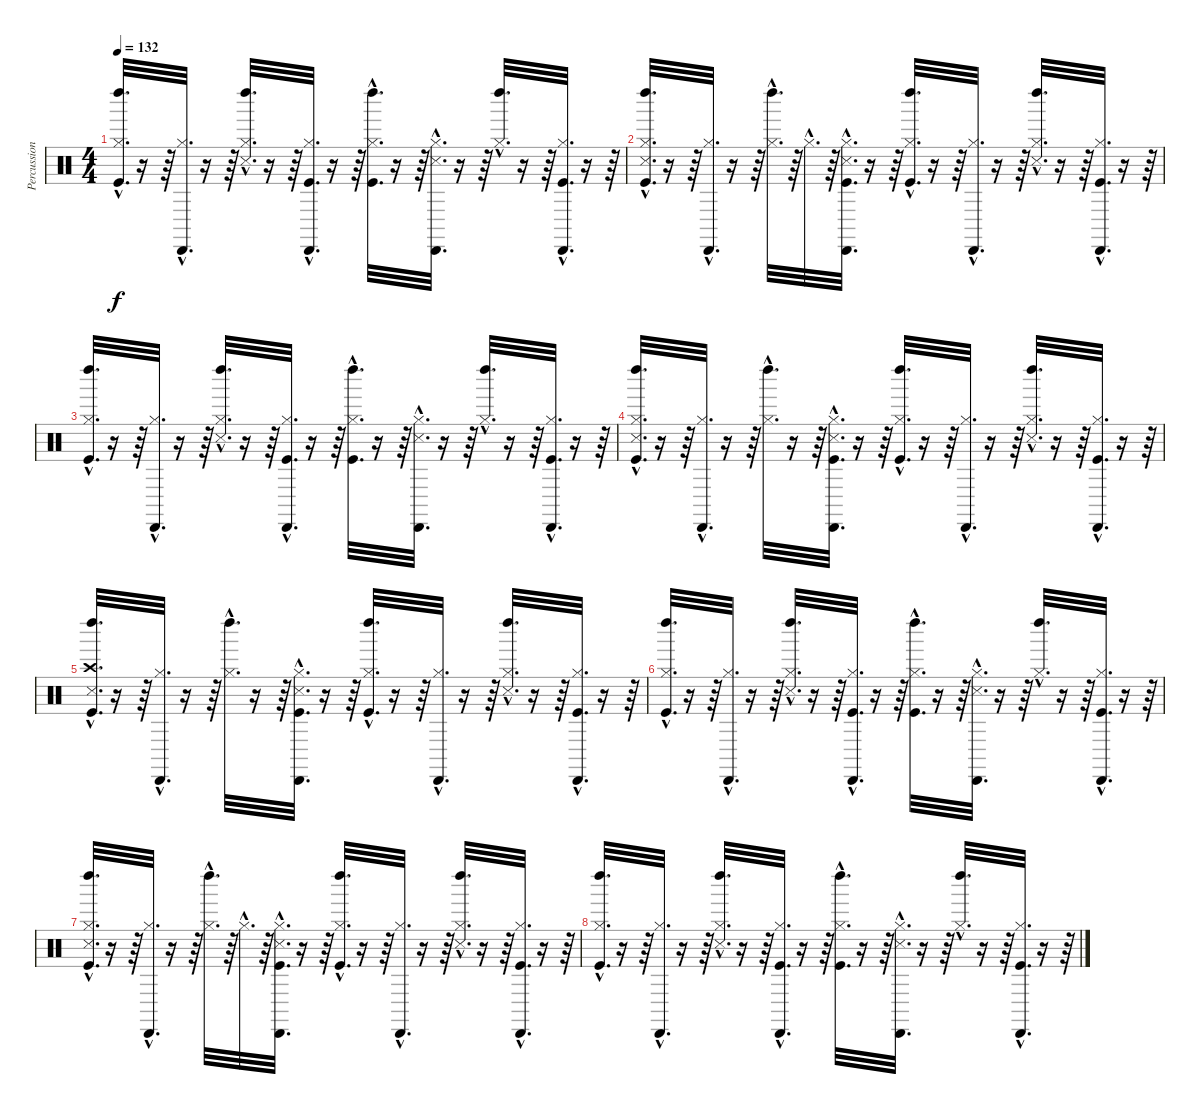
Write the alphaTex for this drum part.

\track ("Percussions" "Percussion") {instrument percussion}
\staff {score}
\articulation defaults
\ts (4 4)
\tempo 132
\clef neutral
\ks c
("Kick (hit)"{hac} "Hi-Hat (closed)"{hac} "Left Maraca (hit)"{hac}).32{d dy f} r.16 r.64 ("Hi-Hat (closed)"{hac} "Cabasa (hit)"{hac}).32{d} r.16 r.64 ("Hi-Hat (closed)"{hac} "Snare (side stick) 3"{hac} "Left Maraca (hit)"{hac}).32{d} r.16 r.64 ("Kick (hit)"{hac} "Hi-Hat (closed)"{hac} "Cabasa (hit)"{hac}).32{d} r.16 r.64 ("Kick (hit)"{hac} "Hi-Hat (closed)"{hac} "Left Maraca (hit)"{hac}).32{d} r.16 r.64 ("Hi-Hat (closed)"{hac} "Snare (side stick) 3"{hac} "Cabasa (hit)"{hac}).32{d} r.16 r.64 ("Hi-Hat (closed)"{hac} "Left Maraca (hit)"{hac}).32{d} r.16 r.64 ("Kick (hit)"{hac} "Hi-Hat (closed)"{hac} "Cabasa (hit)"{hac}).32{d} r.16 r.64 |
("Kick (hit)"{hac} "Hi-Hat (closed)"{hac} "Snare (side stick) 3"{hac} "Left Maraca (hit)"{hac}).32{d} r.16 r.64 ("Hi-Hat (closed)"{hac} "Cabasa (hit)"{hac}).32{d} r.16 r.64 ("Hi-Hat (closed)"{hac} "Left Maraca (hit)"{hac}).32{d} r.64 "Hi-Hat (closed)"{hac}.32{d} r.64 ("Kick (hit)"{hac} "Hi-Hat (closed)"{hac} "Snare (side stick) 3"{hac} "Cabasa (hit)"{hac}).32{d} r.16 r.64 ("Kick (hit)"{hac} "Hi-Hat (closed)"{hac} "Left Maraca (hit)"{hac}).32{d} r.16 r.64 ("Hi-Hat (closed)"{hac} "Cabasa (hit)"{hac}).32{d} r.16 r.64 ("Hi-Hat (closed)"{hac} "Snare (side stick) 3"{hac} "Left Maraca (hit)"{hac}).32{d} r.16 r.64 ("Kick (hit)"{hac} "Hi-Hat (closed)"{hac} "Cabasa (hit)"{hac}).32{d} r.16 r.64 |
("Kick (hit)"{hac} "Hi-Hat (closed)"{hac} "Left Maraca (hit)"{hac}).32{d} r.16 r.64 ("Hi-Hat (closed)"{hac} "Cabasa (hit)"{hac}).32{d} r.16 r.64 ("Hi-Hat (closed)"{hac} "Snare (side stick) 3"{hac} "Left Maraca (hit)"{hac}).32{d} r.16 r.64 ("Kick (hit)"{hac} "Hi-Hat (closed)"{hac} "Cabasa (hit)"{hac}).32{d} r.16 r.64 ("Kick (hit)"{hac} "Hi-Hat (closed)"{hac} "Left Maraca (hit)"{hac}).32{d} r.16 r.64 ("Hi-Hat (closed)"{hac} "Snare (side stick) 3"{hac} "Cabasa (hit)"{hac}).32{d} r.16 r.64 ("Hi-Hat (closed)"{hac} "Left Maraca (hit)"{hac}).32{d} r.16 r.64 ("Kick (hit)"{hac} "Hi-Hat (closed)"{hac} "Cabasa (hit)"{hac}).32{d} r.16 r.64 |
("Kick (hit)"{hac} "Hi-Hat (closed)"{hac} "Snare (side stick) 3"{hac} "Left Maraca (hit)"{hac}).32{d} r.16 r.64 ("Hi-Hat (closed)"{hac} "Cabasa (hit)"{hac}).32{d} r.16 r.64 ("Hi-Hat (closed)"{hac} "Left Maraca (hit)"{hac}).32{d} r.16 r.64 ("Kick (hit)"{hac} "Hi-Hat (closed)"{hac} "Snare (side stick) 3"{hac} "Cabasa (hit)"{hac}).32{d} r.16 r.64 ("Kick (hit)"{hac} "Hi-Hat (closed)"{hac} "Left Maraca (hit)"{hac}).32{d} r.16 r.64 ("Hi-Hat (closed)"{hac} "Cabasa (hit)"{hac}).32{d} r.16 r.64 ("Hi-Hat (closed)"{hac} "Snare (side stick) 3"{hac} "Left Maraca (hit)"{hac}).32{d} r.16 r.64 ("Kick (hit)"{hac} "Hi-Hat (closed)"{hac} "Cabasa (hit)"{hac}).32{d} r.16 r.64 |
("Kick (hit)"{hac} "Snare (side stick) 3"{hac} "Crash high (hit)"{hac} "Left Maraca (hit)"{hac}).32{d} r.16 r.64 ("Hi-Hat (closed)"{hac} "Cabasa (hit)"{hac}).32{d} r.16 r.64 ("Hi-Hat (closed)"{hac} "Left Maraca (hit)"{hac}).32{d} r.16 r.64 ("Kick (hit)"{hac} "Hi-Hat (closed)"{hac} "Snare (side stick) 3"{hac} "Cabasa (hit)"{hac}).32{d} r.16 r.64 ("Kick (hit)"{hac} "Hi-Hat (closed)"{hac} "Left Maraca (hit)"{hac}).32{d} r.16 r.64 ("Hi-Hat (closed)"{hac} "Cabasa (hit)"{hac}).32{d} r.16 r.64 ("Hi-Hat (closed)"{hac} "Snare (side stick) 3"{hac} "Left Maraca (hit)"{hac}).32{d} r.16 r.64 ("Kick (hit)"{hac} "Hi-Hat (closed)"{hac} "Cabasa (hit)"{hac}).32{d} r.16 r.64 |
("Kick (hit)"{hac} "Hi-Hat (closed)"{hac} "Left Maraca (hit)"{hac}).32{d} r.16 r.64 ("Hi-Hat (closed)"{hac} "Cabasa (hit)"{hac}).32{d} r.16 r.64 ("Hi-Hat (closed)"{hac} "Snare (side stick) 3"{hac} "Left Maraca (hit)"{hac}).32{d} r.16 r.64 ("Kick (hit)"{hac} "Hi-Hat (closed)"{hac} "Cabasa (hit)"{hac}).32{d} r.16 r.64 ("Kick (hit)"{hac} "Hi-Hat (closed)"{hac} "Left Maraca (hit)"{hac}).32{d} r.16 r.64 ("Hi-Hat (closed)"{hac} "Snare (side stick) 3"{hac} "Cabasa (hit)"{hac}).32{d} r.16 r.64 ("Hi-Hat (closed)"{hac} "Left Maraca (hit)"{hac}).32{d} r.16 r.64 ("Kick (hit)"{hac} "Hi-Hat (closed)"{hac} "Cabasa (hit)"{hac}).32{d} r.16 r.64 |
("Kick (hit)"{hac} "Hi-Hat (closed)"{hac} "Snare (side stick) 3"{hac} "Left Maraca (hit)"{hac}).32{d} r.16 r.64 ("Hi-Hat (closed)"{hac} "Cabasa (hit)"{hac}).32{d} r.16 r.64 ("Hi-Hat (closed)"{hac} "Left Maraca (hit)"{hac}).32{d} r.64 "Hi-Hat (closed)"{hac}.32{d} r.64 ("Kick (hit)"{hac} "Hi-Hat (closed)"{hac} "Snare (side stick) 3"{hac} "Cabasa (hit)"{hac}).32{d} r.16 r.64 ("Kick (hit)"{hac} "Hi-Hat (closed)"{hac} "Left Maraca (hit)"{hac}).32{d} r.16 r.64 ("Hi-Hat (closed)"{hac} "Cabasa (hit)"{hac}).32{d} r.16 r.64 ("Hi-Hat (closed)"{hac} "Snare (side stick) 3"{hac} "Left Maraca (hit)"{hac}).32{d} r.16 r.64 ("Kick (hit)"{hac} "Hi-Hat (closed)"{hac} "Cabasa (hit)"{hac}).32{d} r.16 r.64 |
("Kick (hit)"{hac} "Hi-Hat (closed)"{hac} "Left Maraca (hit)"{hac}).32{d} r.16 r.64 ("Hi-Hat (closed)"{hac} "Cabasa (hit)"{hac}).32{d} r.16 r.64 ("Hi-Hat (closed)"{hac} "Snare (side stick) 3"{hac} "Left Maraca (hit)"{hac}).32{d} r.16 r.64 ("Kick (hit)"{hac} "Hi-Hat (closed)"{hac} "Cabasa (hit)"{hac}).32{d} r.16 r.64 ("Kick (hit)"{hac} "Hi-Hat (closed)"{hac} "Left Maraca (hit)"{hac}).32{d} r.16 r.64 ("Hi-Hat (closed)"{hac} "Snare (side stick) 3"{hac} "Cabasa (hit)"{hac}).32{d} r.16 r.64 ("Hi-Hat (closed)"{hac} "Left Maraca (hit)"{hac}).32{d} r.16 r.64 ("Kick (hit)"{hac} "Hi-Hat (closed)"{hac} "Cabasa (hit)"{hac}).32{d} r.16 r.64
